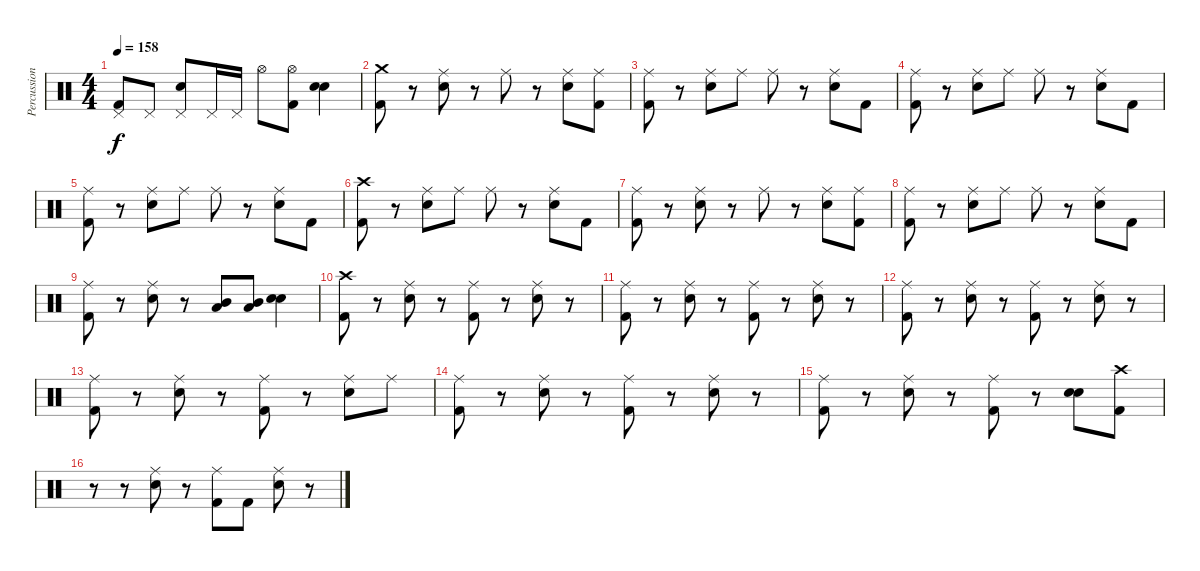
\track ("Percussion" "Percussion") {instrument percussion bank 78}
\staff {score}
\articulation defaults
\ts (4 4)
\tempo 158
\clef neutral
\ks c
("Pedal Hi-Hat (hit)" "Kick (hit) 2").8{dy f} "Pedal Hi-Hat (hit)".8 ("Pedal Hi-Hat (hit)" "Electric Snare (hit)").8 "Pedal Hi-Hat (hit)".16 "Pedal Hi-Hat (hit)".16 "Hi-Hat (open)".8 ("Hi-Hat (open)" "Kick (hit) 2").8 ("Electric Snare (hit)" "Electric Snare (hit)").4 |
("Crash medium (hit)" "Kick (hit) 2").8 r.8 ("Ride (middle)" "Electric Snare (hit)").8 r.8 "Ride (middle)".8 r.8 ("Ride (middle)" "Electric Snare (hit)").8 ("Ride (middle)" "Kick (hit) 2").8 |
("Ride (middle)" "Kick (hit) 2").8 r.8 ("Ride (middle)" "Electric Snare (hit)").8 "Ride (middle)".8 "Ride (middle)".8 r.8 ("Ride (middle)" "Electric Snare (hit)").8 "Kick (hit) 2".8 |
("Ride (middle)" "Kick (hit) 2").8 r.8 ("Ride (middle)" "Electric Snare (hit)").8 "Ride (middle)".8 "Ride (middle)".8 r.8 ("Ride (middle)" "Electric Snare (hit)").8 "Kick (hit) 2".8 |
("Ride (middle)" "Kick (hit) 2").8 r.8 ("Ride (middle)" "Electric Snare (hit)").8 "Ride (middle)".8 "Ride (middle)".8 r.8 ("Ride (middle)" "Electric Snare (hit)").8 "Kick (hit) 2".8 |
("Crash high (hit)" "Kick (hit) 2").8 r.8 ("Ride (middle)" "Electric Snare (hit)").8 "Ride (middle)".8 "Ride (middle)".8 r.8 ("Ride (middle)" "Electric Snare (hit)").8 "Kick (hit) 2".8 |
("Ride (middle)" "Kick (hit) 2").8 r.8 ("Ride (middle)" "Electric Snare (hit)").8 r.8 "Ride (middle)".8 r.8 ("Ride (middle)" "Electric Snare (hit)").8 ("Ride (middle)" "Kick (hit) 2").8 |
("Ride (middle)" "Kick (hit) 2").8 r.8 ("Ride (middle)" "Electric Snare (hit)").8 "Ride (middle)".8 "Ride (middle)".8 r.8 ("Ride (middle)" "Electric Snare (hit)").8 "Kick (hit) 2".8 |
("Ride (middle)" "Kick (hit) 2").8 r.8 ("Ride (middle)" "Electric Snare (hit)").8 r.8 ("Mid Tom (hit)" "Low Tom (hit)").8 ("Mid Tom (hit)" "Low Tom (hit)").8 ("Electric Snare (hit)" "Electric Snare (hit)").4 |
("Crash high (hit)" "Kick (hit) 2").8 r.8 ("Ride (middle)" "Electric Snare (hit)").8 r.8 ("Ride (middle)" "Kick (hit) 2").8 r.8 ("Ride (middle)" "Electric Snare (hit)").8 r.8 |
("Ride (middle)" "Kick (hit) 2").8 r.8 ("Ride (middle)" "Electric Snare (hit)").8 r.8 ("Ride (middle)" "Kick (hit) 2").8 r.8 ("Ride (middle)" "Electric Snare (hit)").8 r.8 |
("Ride (middle)" "Kick (hit) 2").8 r.8 ("Ride (middle)" "Electric Snare (hit)").8 r.8 ("Ride (middle)" "Kick (hit) 2").8 r.8 ("Ride (middle)" "Electric Snare (hit)").8 r.8 |
("Ride (middle)" "Kick (hit) 2").8 r.8 ("Ride (middle)" "Electric Snare (hit)").8 r.8 ("Ride (middle)" "Kick (hit) 2").8 r.8 ("Ride (middle)" "Electric Snare (hit)").8 "Ride (middle)".8 |
("Ride (middle)" "Kick (hit) 2").8 r.8 ("Ride (middle)" "Electric Snare (hit)").8 r.8 ("Ride (middle)" "Kick (hit) 2").8 r.8 ("Ride (middle)" "Electric Snare (hit)").8 r.8 |
("Ride (middle)" "Kick (hit) 2").8 r.8 ("Ride (middle)" "Electric Snare (hit)").8 r.8 ("Ride (middle)" "Kick (hit) 2").8 r.8 ("Electric Snare (hit)" "Electric Snare (hit)").8 ("Crash high (hit)" "Kick (hit) 2").8 |
r.8 r.8 ("Ride (middle)" "Electric Snare (hit)").8 r.8 ("Ride (middle)" "Kick (hit) 2").8 "Kick (hit) 2".8 ("Ride (middle)" "Electric Snare (hit)").8 r.8
